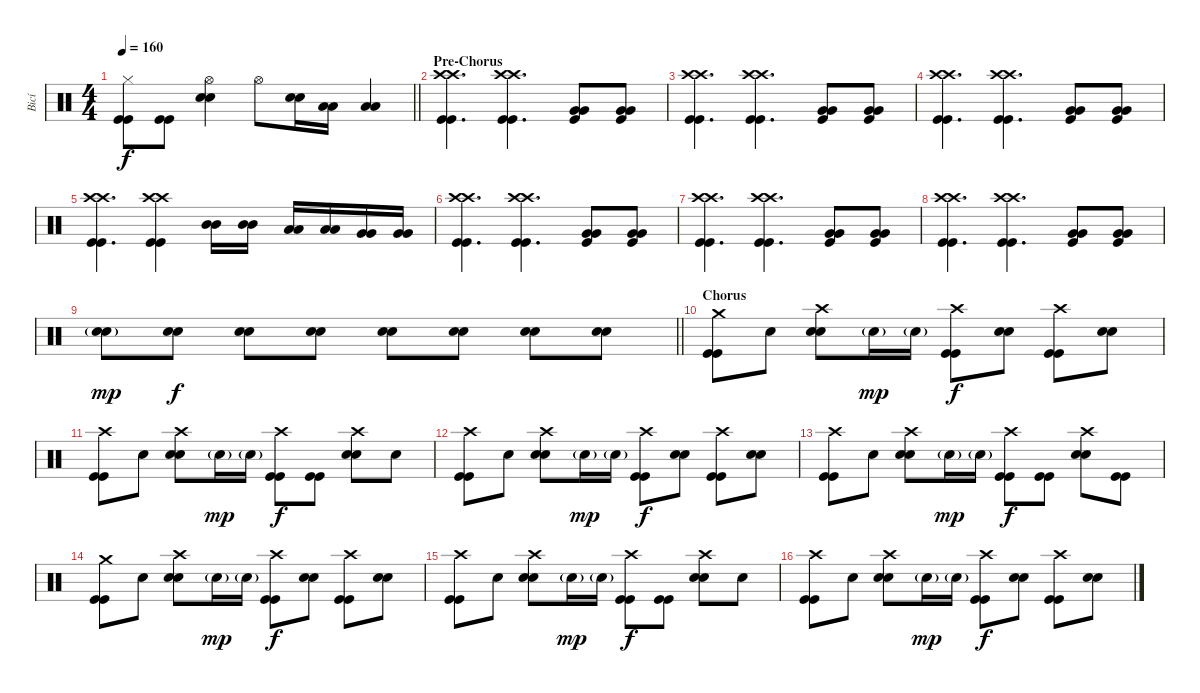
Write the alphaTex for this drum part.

\track ("Bicí" "Bicí") {instrument percussion}
\staff {score}
\articulation defaults
\ts (4 4)
\tempo 160
\clef neutral
\barLineRight lightlight
\ks c
("Hi-Hat (closed)" "Kick (hit)" "Kick (hit)").8{dy f} ("Kick (hit)" "Kick (hit)").8 ("Hi-Hat (open)" "Electric Snare (hit)" "Electric Snare (hit)").4 "Hi-Hat (open)".8 ("Electric Snare (hit)" "Electric Snare (hit)").16 ("Low Tom (hit)" "Low Tom (hit)").16 ("Low Tom (hit)" "Low Tom (hit)").4 |
\section ("" "Pre-Chorus")
("Crash high (hit)" "Crash high (hit)" "Kick (hit)" "Kick (hit)").4{d} ("Crash high (hit)" "Crash high (hit)" "Kick (hit)" "Kick (hit)").4{d} ("Very Low Tom (hit)" "Very Low Tom (hit)" "Kick (hit)").8 ("Very Low Tom (hit)" "Very Low Tom (hit)" "Kick (hit)").8 |
("Crash high (hit)" "Crash high (hit)" "Kick (hit)" "Kick (hit)").4{d} ("Crash high (hit)" "Crash high (hit)" "Kick (hit)" "Kick (hit)").4{d} ("Very Low Tom (hit)" "Very Low Tom (hit)" "Kick (hit)").8 ("Very Low Tom (hit)" "Very Low Tom (hit)" "Kick (hit)").8 |
("Crash high (hit)" "Crash high (hit)" "Kick (hit)" "Kick (hit)").4{d} ("Crash high (hit)" "Crash high (hit)" "Kick (hit)" "Kick (hit)").4{d} ("Very Low Tom (hit)" "Very Low Tom (hit)" "Kick (hit)").8 ("Very Low Tom (hit)" "Very Low Tom (hit)" "Kick (hit)").8 |
("Crash high (hit)" "Crash high (hit)" "Kick (hit)" "Kick (hit)").4{d} ("Crash high (hit)" "Crash high (hit)" "Kick (hit)" "Kick (hit)").4 ("Mid Tom (hit)" "Mid Tom (hit)").16 ("Mid Tom (hit)" "Mid Tom (hit)").16 ("Low Tom (hit)" "Low Tom (hit)").16 ("Low Tom (hit)" "Low Tom (hit)").16 ("Very Low Tom (hit)" "Very Low Tom (hit)").16 ("Very Low Tom (hit)" "Very Low Tom (hit)").16 |
("Crash high (hit)" "Crash high (hit)" "Kick (hit)" "Kick (hit)").4{d} ("Crash high (hit)" "Crash high (hit)" "Kick (hit)" "Kick (hit)").4{d} ("Very Low Tom (hit)" "Very Low Tom (hit)" "Kick (hit)").8 ("Very Low Tom (hit)" "Very Low Tom (hit)" "Kick (hit)").8 |
("Crash high (hit)" "Crash high (hit)" "Kick (hit)" "Kick (hit)").4{d} ("Crash high (hit)" "Crash high (hit)" "Kick (hit)" "Kick (hit)").4{d} ("Very Low Tom (hit)" "Very Low Tom (hit)" "Kick (hit)").8 ("Very Low Tom (hit)" "Very Low Tom (hit)" "Kick (hit)").8 |
("Crash high (hit)" "Crash high (hit)" "Kick (hit)" "Kick (hit)").4{d} ("Crash high (hit)" "Crash high (hit)" "Kick (hit)" "Kick (hit)").4{d} ("Very Low Tom (hit)" "Very Low Tom (hit)" "Kick (hit)").8 ("Very Low Tom (hit)" "Very Low Tom (hit)" "Kick (hit)").8 |
\barLineRight lightlight
("Electric Snare (hit)"{g} "Electric Snare (hit)"{g}).8{dy mp} ("Electric Snare (hit)" "Electric Snare (hit)").8{dy f} ("Electric Snare (hit)" "Electric Snare (hit)").8 ("Electric Snare (hit)" "Electric Snare (hit)").8 ("Electric Snare (hit)" "Electric Snare (hit)").8 ("Electric Snare (hit)" "Electric Snare (hit)").8 ("Electric Snare (hit)" "Electric Snare (hit)").8 ("Electric Snare (hit)" "Electric Snare (hit)").8 |
\section ("" "Chorus")
("Crash medium (hit)" "Kick (hit)" "Kick (hit)").8 "Snare (hit)".8 ("Crash high (hit)" "Electric Snare (hit)" "Electric Snare (hit)").8 "Electric Snare (hit)"{g}.16{dy mp} "Electric Snare (hit)"{g}.16 ("Crash high (hit)" "Kick (hit)" "Kick (hit)").8{dy f} ("Electric Snare (hit)" "Electric Snare (hit)").8 ("Crash high (hit)" "Kick (hit)" "Kick (hit)").8 ("Electric Snare (hit)" "Electric Snare (hit)").8 |
("Crash high (hit)" "Kick (hit)" "Kick (hit)").8 "Snare (hit)".8 ("Crash high (hit)" "Electric Snare (hit)" "Electric Snare (hit)").8 "Electric Snare (hit)"{g}.16{dy mp} "Electric Snare (hit)"{g}.16 ("Crash high (hit)" "Kick (hit)" "Kick (hit)").8{dy f} ("Kick (hit)" "Kick (hit)").8 ("Crash high (hit)" "Electric Snare (hit)" "Electric Snare (hit)").8 "Snare (hit)".8 |
("Crash high (hit)" "Kick (hit)" "Kick (hit)").8 "Snare (hit)".8 ("Crash high (hit)" "Electric Snare (hit)" "Electric Snare (hit)").8 "Electric Snare (hit)"{g}.16{dy mp} "Electric Snare (hit)"{g}.16 ("Crash high (hit)" "Kick (hit)" "Kick (hit)").8{dy f} ("Electric Snare (hit)" "Electric Snare (hit)").8 ("Crash high (hit)" "Kick (hit)" "Kick (hit)").8 ("Electric Snare (hit)" "Electric Snare (hit)").8 |
("Crash high (hit)" "Kick (hit)" "Kick (hit)").8 "Snare (hit)".8 ("Crash high (hit)" "Electric Snare (hit)" "Electric Snare (hit)").8 "Electric Snare (hit)"{g}.16{dy mp} "Electric Snare (hit)"{g}.16 ("Crash high (hit)" "Kick (hit)" "Kick (hit)").8{dy f} ("Kick (hit)" "Kick (hit)").8 ("Crash high (hit)" "Electric Snare (hit)" "Electric Snare (hit)").8 ("Kick (hit)" "Kick (hit)").8 |
("Crash medium (hit)" "Kick (hit)" "Kick (hit)").8 "Snare (hit)".8 ("Crash high (hit)" "Electric Snare (hit)" "Electric Snare (hit)").8 "Electric Snare (hit)"{g}.16{dy mp} "Electric Snare (hit)"{g}.16 ("Crash high (hit)" "Kick (hit)" "Kick (hit)").8{dy f} ("Electric Snare (hit)" "Electric Snare (hit)").8 ("Crash high (hit)" "Kick (hit)" "Kick (hit)").8 ("Electric Snare (hit)" "Electric Snare (hit)").8 |
("Crash high (hit)" "Kick (hit)" "Kick (hit)").8 "Snare (hit)".8 ("Crash high (hit)" "Electric Snare (hit)" "Electric Snare (hit)").8 "Electric Snare (hit)"{g}.16{dy mp} "Electric Snare (hit)"{g}.16 ("Crash high (hit)" "Kick (hit)" "Kick (hit)").8{dy f} ("Kick (hit)" "Kick (hit)").8 ("Crash high (hit)" "Electric Snare (hit)" "Electric Snare (hit)").8 "Snare (hit)".8 |
("Crash high (hit)" "Kick (hit)" "Kick (hit)").8 "Snare (hit)".8 ("Crash high (hit)" "Electric Snare (hit)" "Electric Snare (hit)").8 "Electric Snare (hit)"{g}.16{dy mp} "Electric Snare (hit)"{g}.16 ("Crash high (hit)" "Kick (hit)" "Kick (hit)").8{dy f} ("Electric Snare (hit)" "Electric Snare (hit)").8 ("Crash high (hit)" "Kick (hit)" "Kick (hit)").8 ("Electric Snare (hit)" "Electric Snare (hit)").8
